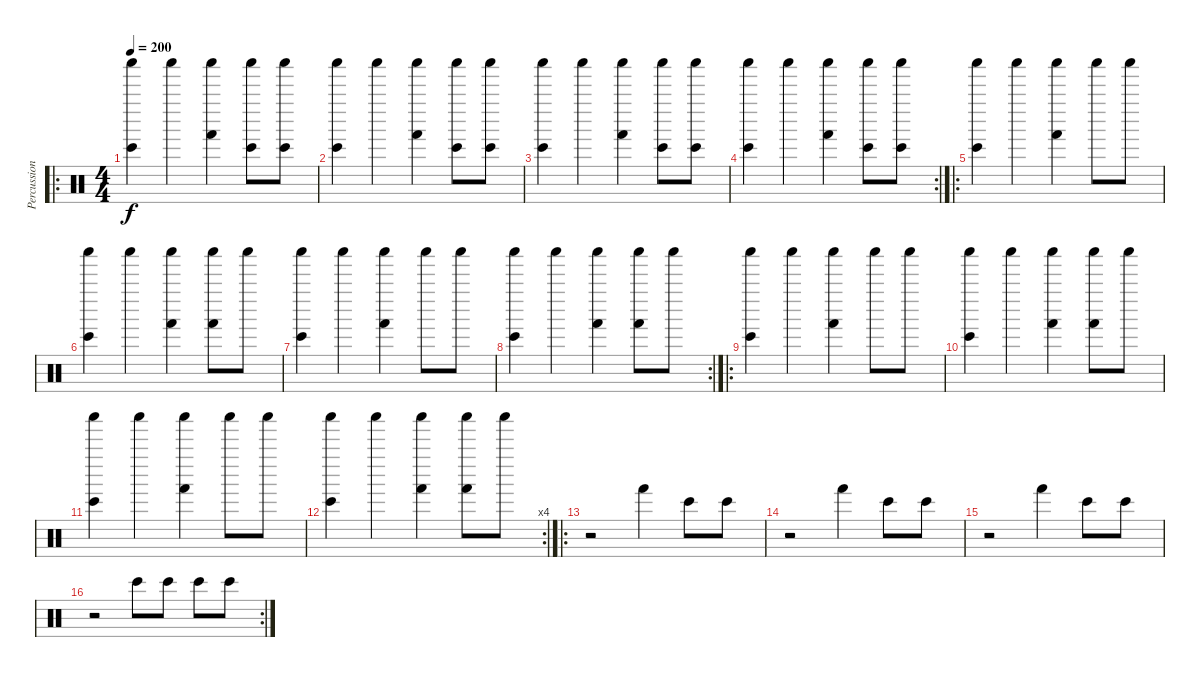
\track ("Percussions" "Percussion") {instrument percussion}
\staff {score}
\articulation defaults
\ro
\ts (4 4)
\tempo 200
\clef neutral
\ks c
("Shaker (hit)" "Bongo High (hit)").4{dy f} "Shaker (hit)".4 ("Shaker (hit)" "Hand (hit)").4 ("Shaker (hit)" "Bongo High (hit)").8 ("Shaker (hit)" "Bongo High (hit)").8 |
("Shaker (hit)" "Bongo High (hit)").4 "Shaker (hit)".4 ("Shaker (hit)" "Hand (hit)").4 ("Shaker (hit)" "Bongo High (hit)").8 ("Shaker (hit)" "Bongo High (hit)").8 |
("Shaker (hit)" "Bongo High (hit)").4 "Shaker (hit)".4 ("Shaker (hit)" "Hand (hit)").4 ("Shaker (hit)" "Bongo High (hit)").8 ("Shaker (hit)" "Bongo High (hit)").8 |
\rc 2
("Shaker (hit)" "Bongo High (hit)").4 "Shaker (hit)".4 ("Shaker (hit)" "Hand (hit)").4 ("Shaker (hit)" "Bongo High (hit)").8 ("Shaker (hit)" "Bongo High (hit)").8 |
\ro
("Shaker (hit)" "Bongo High (hit)").4 "Shaker (hit)".4 ("Shaker (hit)" "Hand (hit)").4 "Shaker (hit)".8 "Shaker (hit)".8 |
("Shaker (hit)" "Bongo High (hit)").4 "Shaker (hit)".4 ("Shaker (hit)" "Hand (hit)").4 ("Shaker (hit)" "Hand (hit)").8 "Shaker (hit)".8 |
("Shaker (hit)" "Bongo High (hit)").4 "Shaker (hit)".4 ("Shaker (hit)" "Hand (hit)").4 "Shaker (hit)".8 "Shaker (hit)".8 |
\rc 2
("Shaker (hit)" "Bongo High (hit)").4 "Shaker (hit)".4 ("Shaker (hit)" "Hand (hit)").4 ("Shaker (hit)" "Hand (hit)").8 "Shaker (hit)".8 |
\ro
("Shaker (hit)" "Bongo High (hit)").4 "Shaker (hit)".4 ("Shaker (hit)" "Hand (hit)").4 "Shaker (hit)".8 "Shaker (hit)".8 |
("Shaker (hit)" "Bongo High (hit)").4 "Shaker (hit)".4 ("Shaker (hit)" "Hand (hit)").4 ("Shaker (hit)" "Hand (hit)").8 "Shaker (hit)".8 |
("Shaker (hit)" "Bongo High (hit)").4 "Shaker (hit)".4 ("Shaker (hit)" "Hand (hit)").4 "Shaker (hit)".8 "Shaker (hit)".8 |
\rc 4
("Shaker (hit)" "Bongo High (hit)").4 "Shaker (hit)".4 ("Shaker (hit)" "Hand (hit)").4 ("Shaker (hit)" "Hand (hit)").8 "Shaker (hit)".8 |
\ro
r.2 "Hand (hit)".4 "Bongo High (hit)".8 "Bongo High (hit)".8 |
r.2 "Hand (hit)".4 "Bongo High (hit)".8 "Bongo High (hit)".8 |
r.2 "Hand (hit)".4 "Bongo High (hit)".8 "Bongo High (hit)".8 |
\rc 2
r.2 "Bongo High (hit)".8 "Bongo High (hit)".8 "Bongo High (hit)".8 "Bongo High (hit)".8
